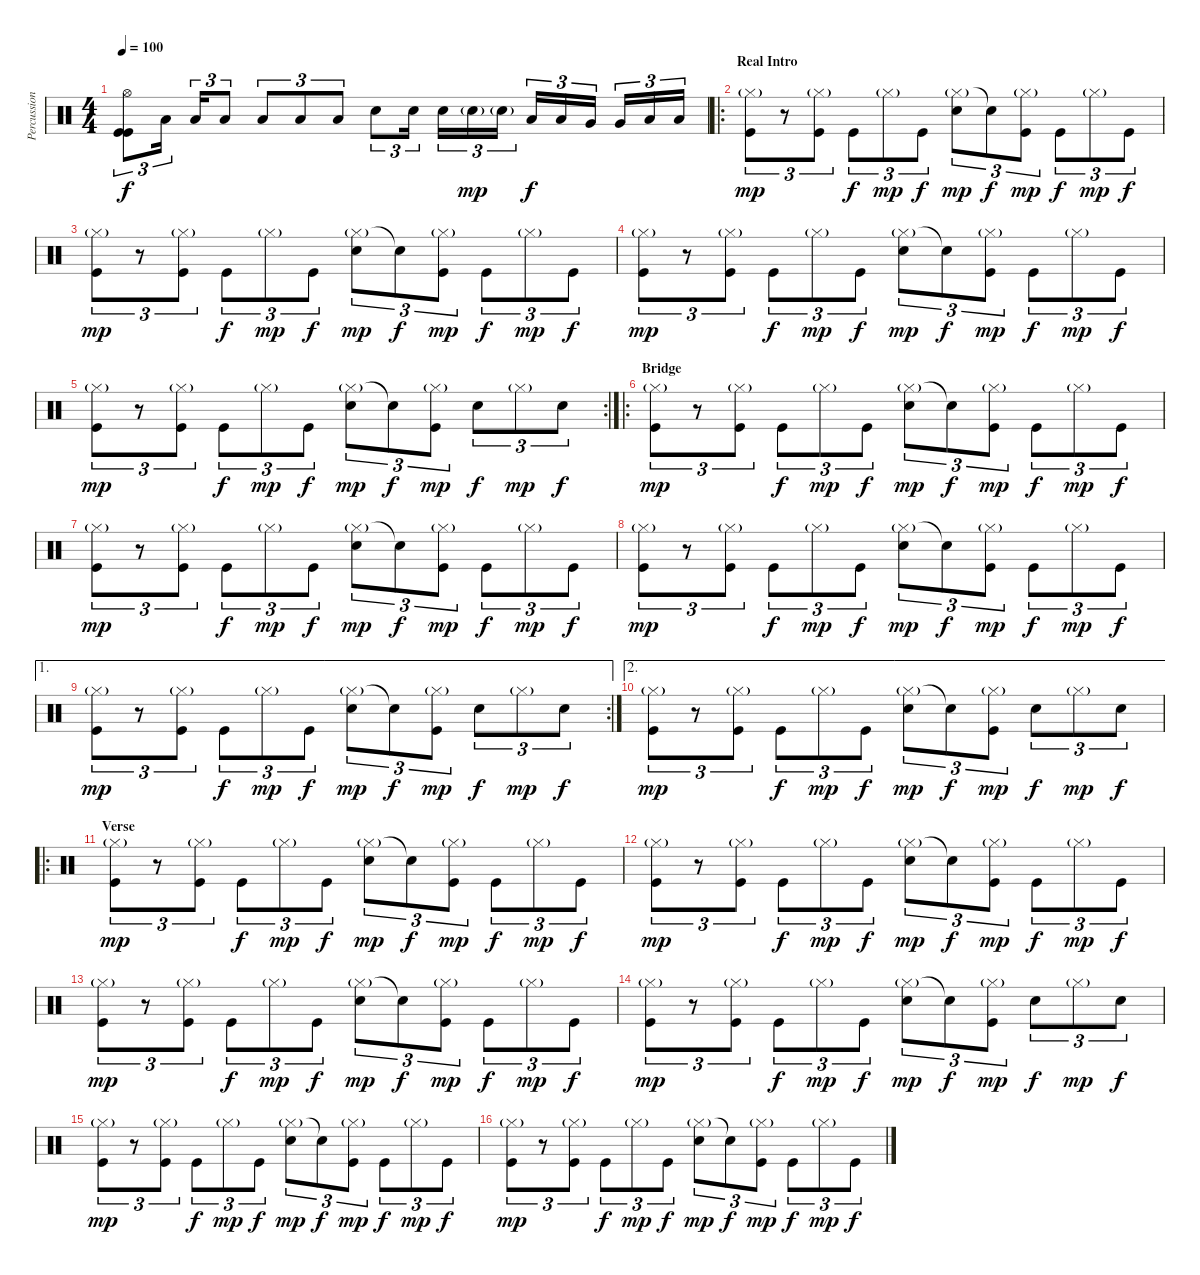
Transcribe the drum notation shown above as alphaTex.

\track ("Percussions" "Percussion") {instrument percussion}
\staff {score}
\articulation defaults
\ts (4 4)
\tempo 100
\clef neutral
\ks c
("Hi-Hat (open)" "Kick (hit)" "Kick (hit)").8{tu (3 2) dy f} "Low Tom (hit)".16{tu (3 2)} "Low Tom (hit)".16{tu (3 2)} "Low Tom (hit)".8{tu (3 2)} "Low Tom (hit)".8{tu (3 2)} "Low Tom (hit)".8{tu (3 2)} "Low Tom (hit)".8{tu (3 2)} "Electric Snare (hit)".8{tu (3 2)} "Electric Snare (hit)".16{tu (3 2)} "Electric Snare (hit)".16{tu (3 2)} "Electric Snare (hit)"{g}.16{tu (3 2) dy mp} "Electric Snare (hit)"{g}.16{tu (3 2)} "Low Tom (hit)".16{tu (3 2) dy f} "Low Tom (hit)".16{tu (3 2)} "Very Low Tom (hit)".16{tu (3 2)} "Very Low Tom (hit)".16{tu (3 2)} "Low Floor Tom (hit)".16{tu (3 2)} "Low Floor Tom (hit)".16{tu (3 2)} |
\ro
\section ("" "Real Intro")
("Hi-Hat (closed)"{g} "Kick (hit)").8{tu (3 2) dy mp} r.8{tu (3 2)} ("Hi-Hat (closed)"{g} "Kick (hit)").8{tu (3 2)} "Kick (hit)".8{tu (3 2) dy f} "Hi-Hat (closed)"{g}.8{tu (3 2) dy mp} "Kick (hit)".8{tu (3 2) dy f} ("Hi-Hat (closed)"{g} "Electric Snare (hit)").8{tu (3 2) dy mp} "Snare (hit)"{t}.8{tu (3 2) dy f} ("Hi-Hat (closed)"{g} "Kick (hit)").8{tu (3 2) dy mp} "Kick (hit)".8{tu (3 2) dy f} "Hi-Hat (closed)"{g}.8{tu (3 2) dy mp} "Kick (hit)".8{tu (3 2) dy f} |
("Hi-Hat (closed)"{g} "Kick (hit)").8{tu (3 2) dy mp} r.8{tu (3 2)} ("Hi-Hat (closed)"{g} "Kick (hit)").8{tu (3 2)} "Kick (hit)".8{tu (3 2) dy f} "Hi-Hat (closed)"{g}.8{tu (3 2) dy mp} "Kick (hit)".8{tu (3 2) dy f} ("Hi-Hat (closed)"{g} "Electric Snare (hit)").8{tu (3 2) dy mp} "Snare (hit)"{t}.8{tu (3 2) dy f} ("Hi-Hat (closed)"{g} "Kick (hit)").8{tu (3 2) dy mp} "Kick (hit)".8{tu (3 2) dy f} "Hi-Hat (closed)"{g}.8{tu (3 2) dy mp} "Kick (hit)".8{tu (3 2) dy f} |
("Hi-Hat (closed)"{g} "Kick (hit)").8{tu (3 2) dy mp} r.8{tu (3 2)} ("Hi-Hat (closed)"{g} "Kick (hit)").8{tu (3 2)} "Kick (hit)".8{tu (3 2) dy f} "Hi-Hat (closed)"{g}.8{tu (3 2) dy mp} "Kick (hit)".8{tu (3 2) dy f} ("Hi-Hat (closed)"{g} "Electric Snare (hit)").8{tu (3 2) dy mp} "Snare (hit)"{t}.8{tu (3 2) dy f} ("Hi-Hat (closed)"{g} "Kick (hit)").8{tu (3 2) dy mp} "Kick (hit)".8{tu (3 2) dy f} "Hi-Hat (closed)"{g}.8{tu (3 2) dy mp} "Kick (hit)".8{tu (3 2) dy f} |
\rc 2
("Hi-Hat (closed)"{g} "Kick (hit)").8{tu (3 2) dy mp} r.8{tu (3 2)} ("Hi-Hat (closed)"{g} "Kick (hit)").8{tu (3 2)} "Kick (hit)".8{tu (3 2) dy f} "Hi-Hat (closed)"{g}.8{tu (3 2) dy mp} "Kick (hit)".8{tu (3 2) dy f} ("Hi-Hat (closed)"{g} "Electric Snare (hit)").8{tu (3 2) dy mp} "Snare (hit)"{t}.8{tu (3 2) dy f} ("Hi-Hat (closed)"{g} "Kick (hit)").8{tu (3 2) dy mp} "Electric Snare (hit)".8{tu (3 2) dy f} "Hi-Hat (closed)"{g}.8{tu (3 2) dy mp} "Electric Snare (hit)".8{tu (3 2) dy f} |
\ro
\section ("" "Bridge")
("Hi-Hat (closed)"{g} "Kick (hit)").8{tu (3 2) dy mp} r.8{tu (3 2)} ("Hi-Hat (closed)"{g} "Kick (hit)").8{tu (3 2)} "Kick (hit)".8{tu (3 2) dy f} "Hi-Hat (closed)"{g}.8{tu (3 2) dy mp} "Kick (hit)".8{tu (3 2) dy f} ("Hi-Hat (closed)"{g} "Electric Snare (hit)").8{tu (3 2) dy mp} "Snare (hit)"{t}.8{tu (3 2) dy f} ("Hi-Hat (closed)"{g} "Kick (hit)").8{tu (3 2) dy mp} "Kick (hit)".8{tu (3 2) dy f} "Hi-Hat (closed)"{g}.8{tu (3 2) dy mp} "Kick (hit)".8{tu (3 2) dy f} |
("Hi-Hat (closed)"{g} "Kick (hit)").8{tu (3 2) dy mp} r.8{tu (3 2)} ("Hi-Hat (closed)"{g} "Kick (hit)").8{tu (3 2)} "Kick (hit)".8{tu (3 2) dy f} "Hi-Hat (closed)"{g}.8{tu (3 2) dy mp} "Kick (hit)".8{tu (3 2) dy f} ("Hi-Hat (closed)"{g} "Electric Snare (hit)").8{tu (3 2) dy mp} "Snare (hit)"{t}.8{tu (3 2) dy f} ("Hi-Hat (closed)"{g} "Kick (hit)").8{tu (3 2) dy mp} "Kick (hit)".8{tu (3 2) dy f} "Hi-Hat (closed)"{g}.8{tu (3 2) dy mp} "Kick (hit)".8{tu (3 2) dy f} |
("Hi-Hat (closed)"{g} "Kick (hit)").8{tu (3 2) dy mp} r.8{tu (3 2)} ("Hi-Hat (closed)"{g} "Kick (hit)").8{tu (3 2)} "Kick (hit)".8{tu (3 2) dy f} "Hi-Hat (closed)"{g}.8{tu (3 2) dy mp} "Kick (hit)".8{tu (3 2) dy f} ("Hi-Hat (closed)"{g} "Electric Snare (hit)").8{tu (3 2) dy mp} "Snare (hit)"{t}.8{tu (3 2) dy f} ("Hi-Hat (closed)"{g} "Kick (hit)").8{tu (3 2) dy mp} "Kick (hit)".8{tu (3 2) dy f} "Hi-Hat (closed)"{g}.8{tu (3 2) dy mp} "Kick (hit)".8{tu (3 2) dy f} |
\ae 1
\rc 2
("Hi-Hat (closed)"{g} "Kick (hit)").8{tu (3 2) dy mp} r.8{tu (3 2)} ("Hi-Hat (closed)"{g} "Kick (hit)").8{tu (3 2)} "Kick (hit)".8{tu (3 2) dy f} "Hi-Hat (closed)"{g}.8{tu (3 2) dy mp} "Kick (hit)".8{tu (3 2) dy f} ("Hi-Hat (closed)"{g} "Electric Snare (hit)").8{tu (3 2) dy mp} "Snare (hit)"{t}.8{tu (3 2) dy f} ("Hi-Hat (closed)"{g} "Kick (hit)").8{tu (3 2) dy mp} "Electric Snare (hit)".8{tu (3 2) dy f} "Hi-Hat (closed)"{g}.8{tu (3 2) dy mp} "Electric Snare (hit)".8{tu (3 2) dy f} |
\ae 2
("Hi-Hat (closed)"{g} "Kick (hit)").8{tu (3 2) dy mp} r.8{tu (3 2)} ("Hi-Hat (closed)"{g} "Kick (hit)").8{tu (3 2)} "Kick (hit)".8{tu (3 2) dy f} "Hi-Hat (closed)"{g}.8{tu (3 2) dy mp} "Kick (hit)".8{tu (3 2) dy f} ("Hi-Hat (closed)"{g} "Electric Snare (hit)").8{tu (3 2) dy mp} "Snare (hit)"{t}.8{tu (3 2) dy f} ("Hi-Hat (closed)"{g} "Kick (hit)").8{tu (3 2) dy mp} "Electric Snare (hit)".8{tu (3 2) dy f} "Hi-Hat (closed)"{g}.8{tu (3 2) dy mp} "Electric Snare (hit)".8{tu (3 2) dy f} |
\ro
\section ("" "Verse")
("Hi-Hat (closed)"{g} "Kick (hit)").8{tu (3 2) dy mp} r.8{tu (3 2)} ("Hi-Hat (closed)"{g} "Kick (hit)").8{tu (3 2)} "Kick (hit)".8{tu (3 2) dy f} "Hi-Hat (closed)"{g}.8{tu (3 2) dy mp} "Kick (hit)".8{tu (3 2) dy f} ("Hi-Hat (closed)"{g} "Electric Snare (hit)").8{tu (3 2) dy mp} "Snare (hit)"{t}.8{tu (3 2) dy f} ("Hi-Hat (closed)"{g} "Kick (hit)").8{tu (3 2) dy mp} "Kick (hit)".8{tu (3 2) dy f} "Hi-Hat (closed)"{g}.8{tu (3 2) dy mp} "Kick (hit)".8{tu (3 2) dy f} |
("Hi-Hat (closed)"{g} "Kick (hit)").8{tu (3 2) dy mp} r.8{tu (3 2)} ("Hi-Hat (closed)"{g} "Kick (hit)").8{tu (3 2)} "Kick (hit)".8{tu (3 2) dy f} "Hi-Hat (closed)"{g}.8{tu (3 2) dy mp} "Kick (hit)".8{tu (3 2) dy f} ("Hi-Hat (closed)"{g} "Electric Snare (hit)").8{tu (3 2) dy mp} "Snare (hit)"{t}.8{tu (3 2) dy f} ("Hi-Hat (closed)"{g} "Kick (hit)").8{tu (3 2) dy mp} "Kick (hit)".8{tu (3 2) dy f} "Hi-Hat (closed)"{g}.8{tu (3 2) dy mp} "Kick (hit)".8{tu (3 2) dy f} |
("Hi-Hat (closed)"{g} "Kick (hit)").8{tu (3 2) dy mp} r.8{tu (3 2)} ("Hi-Hat (closed)"{g} "Kick (hit)").8{tu (3 2)} "Kick (hit)".8{tu (3 2) dy f} "Hi-Hat (closed)"{g}.8{tu (3 2) dy mp} "Kick (hit)".8{tu (3 2) dy f} ("Hi-Hat (closed)"{g} "Electric Snare (hit)").8{tu (3 2) dy mp} "Snare (hit)"{t}.8{tu (3 2) dy f} ("Hi-Hat (closed)"{g} "Kick (hit)").8{tu (3 2) dy mp} "Kick (hit)".8{tu (3 2) dy f} "Hi-Hat (closed)"{g}.8{tu (3 2) dy mp} "Kick (hit)".8{tu (3 2) dy f} |
("Hi-Hat (closed)"{g} "Kick (hit)").8{tu (3 2) dy mp} r.8{tu (3 2)} ("Hi-Hat (closed)"{g} "Kick (hit)").8{tu (3 2)} "Kick (hit)".8{tu (3 2) dy f} "Hi-Hat (closed)"{g}.8{tu (3 2) dy mp} "Kick (hit)".8{tu (3 2) dy f} ("Hi-Hat (closed)"{g} "Electric Snare (hit)").8{tu (3 2) dy mp} "Snare (hit)"{t}.8{tu (3 2) dy f} ("Hi-Hat (closed)"{g} "Kick (hit)").8{tu (3 2) dy mp} "Electric Snare (hit)".8{tu (3 2) dy f} "Hi-Hat (closed)"{g}.8{tu (3 2) dy mp} "Electric Snare (hit)".8{tu (3 2) dy f} |
("Hi-Hat (closed)"{g} "Kick (hit)").8{tu (3 2) dy mp} r.8{tu (3 2)} ("Hi-Hat (closed)"{g} "Kick (hit)").8{tu (3 2)} "Kick (hit)".8{tu (3 2) dy f} "Hi-Hat (closed)"{g}.8{tu (3 2) dy mp} "Kick (hit)".8{tu (3 2) dy f} ("Hi-Hat (closed)"{g} "Electric Snare (hit)").8{tu (3 2) dy mp} "Snare (hit)"{t}.8{tu (3 2) dy f} ("Hi-Hat (closed)"{g} "Kick (hit)").8{tu (3 2) dy mp} "Kick (hit)".8{tu (3 2) dy f} "Hi-Hat (closed)"{g}.8{tu (3 2) dy mp} "Kick (hit)".8{tu (3 2) dy f} |
("Hi-Hat (closed)"{g} "Kick (hit)").8{tu (3 2) dy mp} r.8{tu (3 2)} ("Hi-Hat (closed)"{g} "Kick (hit)").8{tu (3 2)} "Kick (hit)".8{tu (3 2) dy f} "Hi-Hat (closed)"{g}.8{tu (3 2) dy mp} "Kick (hit)".8{tu (3 2) dy f} ("Hi-Hat (closed)"{g} "Electric Snare (hit)").8{tu (3 2) dy mp} "Snare (hit)"{t}.8{tu (3 2) dy f} ("Hi-Hat (closed)"{g} "Kick (hit)").8{tu (3 2) dy mp} "Kick (hit)".8{tu (3 2) dy f} "Hi-Hat (closed)"{g}.8{tu (3 2) dy mp} "Kick (hit)".8{tu (3 2) dy f}
